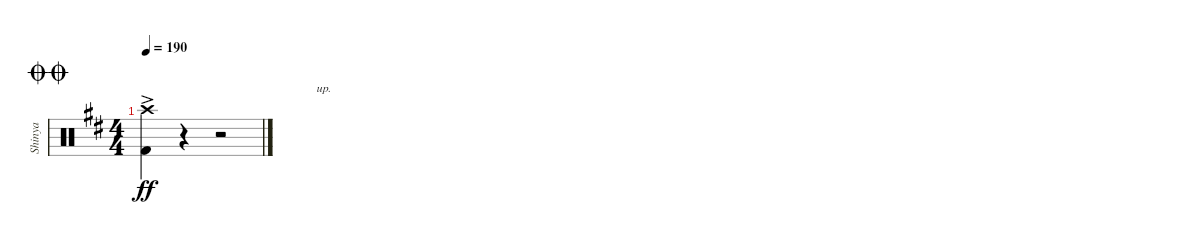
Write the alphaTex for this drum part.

\track ("Shinya" "Shinya") {instrument percussion}
\staff {score}
\articulation defaults
\ts (4 4)
\jump doublecoda
\tempo 190
\clef neutral
\ks d
("Crash high (hit)"{ac} "Kick (hit) 2").4{dy ff} r.4 r.2{txt "                                up."}
